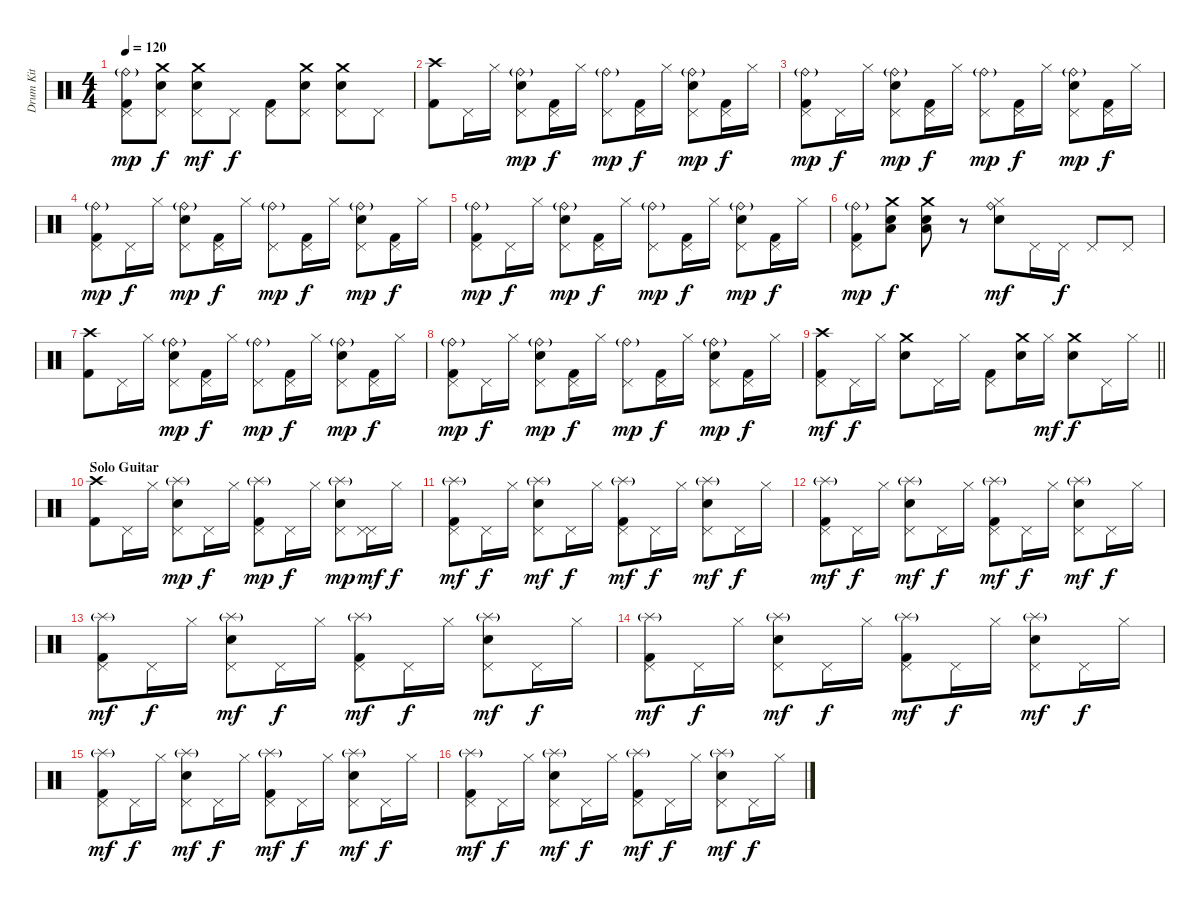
\track ("Drum Kit" "Drum Kit") {instrument percussion}
\staff {score}
\articulation defaults
\ts (4 4)
\tempo 120
\clef neutral
\ks c
("Kick (hit) 2" "Pedal Hi-Hat (hit)" "Ride (bell)"{g}).8{dy mp} ("Pedal Hi-Hat (hit)" "Electric Snare (hit)" "Crash medium (hit)").8{dy f} ("Electric Snare (hit)" "Pedal Hi-Hat (hit)" "Crash medium (hit)").8{dy mf} "Pedal Hi-Hat (hit)".8{dy f} ("Kick (hit) 2" "Pedal Hi-Hat (hit)").8 ("Crash medium (hit)" "Electric Snare (hit)" "Pedal Hi-Hat (hit)").8 ("Crash medium (hit)" "Electric Snare (hit)" "Pedal Hi-Hat (hit)").8 "Pedal Hi-Hat (hit)".8 |
("Crash high (hit)" "Kick (hit) 2").8 "Pedal Hi-Hat (hit)".16 "Hi-Hat (closed)".16 ("Electric Snare (hit)" "Pedal Hi-Hat (hit)" "Ride (bell)"{g}).8{dy mp} ("Kick (hit) 2" "Pedal Hi-Hat (hit)").16{dy f} "Hi-Hat (closed)".16 ("Pedal Hi-Hat (hit)" "Ride (bell)"{g}).8{dy mp} ("Kick (hit) 2" "Pedal Hi-Hat (hit)").16{dy f} "Hi-Hat (closed)".16 ("Electric Snare (hit)" "Pedal Hi-Hat (hit)" "Ride (bell)"{g}).8{dy mp} ("Kick (hit) 2" "Pedal Hi-Hat (hit)").16{dy f} "Hi-Hat (closed)".16 |
("Kick (hit) 2" "Pedal Hi-Hat (hit)" "Ride (bell)"{g}).8{dy mp} "Pedal Hi-Hat (hit)".16{dy f} "Hi-Hat (closed)".16 ("Electric Snare (hit)" "Pedal Hi-Hat (hit)" "Ride (bell)"{g}).8{dy mp} ("Kick (hit) 2" "Pedal Hi-Hat (hit)").16{dy f} "Hi-Hat (closed)".16 ("Pedal Hi-Hat (hit)" "Ride (bell)"{g}).8{dy mp} ("Kick (hit) 2" "Pedal Hi-Hat (hit)").16{dy f} "Hi-Hat (closed)".16 ("Electric Snare (hit)" "Pedal Hi-Hat (hit)" "Ride (bell)"{g}).8{dy mp} ("Kick (hit) 2" "Pedal Hi-Hat (hit)").16{dy f} "Hi-Hat (closed)".16 |
("Kick (hit) 2" "Pedal Hi-Hat (hit)" "Ride (bell)"{g}).8{dy mp} "Pedal Hi-Hat (hit)".16{dy f} "Hi-Hat (closed)".16 ("Electric Snare (hit)" "Pedal Hi-Hat (hit)" "Ride (bell)"{g}).8{dy mp} ("Kick (hit) 2" "Pedal Hi-Hat (hit)").16{dy f} "Hi-Hat (closed)".16 ("Pedal Hi-Hat (hit)" "Ride (bell)"{g}).8{dy mp} ("Kick (hit) 2" "Pedal Hi-Hat (hit)").16{dy f} "Hi-Hat (closed)".16 ("Electric Snare (hit)" "Pedal Hi-Hat (hit)" "Ride (bell)"{g}).8{dy mp} ("Kick (hit) 2" "Pedal Hi-Hat (hit)").16{dy f} "Hi-Hat (closed)".16 |
("Kick (hit) 2" "Pedal Hi-Hat (hit)" "Ride (bell)"{g}).8{dy mp} "Pedal Hi-Hat (hit)".16{dy f} "Hi-Hat (closed)".16 ("Electric Snare (hit)" "Pedal Hi-Hat (hit)" "Ride (bell)"{g}).8{dy mp} ("Kick (hit) 2" "Pedal Hi-Hat (hit)").16{dy f} "Hi-Hat (closed)".16 ("Pedal Hi-Hat (hit)" "Ride (bell)"{g}).8{dy mp} ("Kick (hit) 2" "Pedal Hi-Hat (hit)").16{dy f} "Hi-Hat (closed)".16 ("Electric Snare (hit)" "Pedal Hi-Hat (hit)" "Ride (bell)"{g}).8{dy mp} ("Kick (hit) 2" "Pedal Hi-Hat (hit)").16{dy f} "Hi-Hat (closed)".16 |
("Kick (hit) 2" "Pedal Hi-Hat (hit)" "Ride (bell)"{g}).8{dy mp} ("Low Tom (hit)" "Electric Snare (hit)" "Crash medium (hit)").8{dy f} ("Low Tom (hit)" "Electric Snare (hit)" "Crash medium (hit)").8 r.8 ("Electric Snare (hit)" "Ride (bell)" "Hi-Hat (closed)").8{dy mf} "Pedal Hi-Hat (hit)".16 "Pedal Hi-Hat (hit)".16{dy f} "Pedal Hi-Hat (hit)".8 "Pedal Hi-Hat (hit)".8 |
("Crash high (hit)" "Kick (hit) 2").8 "Pedal Hi-Hat (hit)".16 "Hi-Hat (closed)".16 ("Electric Snare (hit)" "Pedal Hi-Hat (hit)" "Ride (bell)"{g}).8{dy mp} ("Kick (hit) 2" "Pedal Hi-Hat (hit)").16{dy f} "Hi-Hat (closed)".16 ("Pedal Hi-Hat (hit)" "Ride (bell)"{g}).8{dy mp} ("Kick (hit) 2" "Pedal Hi-Hat (hit)").16{dy f} "Hi-Hat (closed)".16 ("Electric Snare (hit)" "Pedal Hi-Hat (hit)" "Ride (bell)"{g}).8{dy mp} ("Kick (hit) 2" "Pedal Hi-Hat (hit)").16{dy f} "Hi-Hat (closed)".16 |
("Kick (hit) 2" "Pedal Hi-Hat (hit)" "Ride (bell)"{g}).8{dy mp} "Pedal Hi-Hat (hit)".16{dy f} "Hi-Hat (closed)".16 ("Electric Snare (hit)" "Pedal Hi-Hat (hit)" "Ride (bell)"{g}).8{dy mp} ("Kick (hit) 2" "Pedal Hi-Hat (hit)").16{dy f} "Hi-Hat (closed)".16 ("Pedal Hi-Hat (hit)" "Ride (bell)"{g}).8{dy mp} ("Kick (hit) 2" "Pedal Hi-Hat (hit)").16{dy f} "Hi-Hat (closed)".16 ("Electric Snare (hit)" "Pedal Hi-Hat (hit)" "Ride (bell)"{g}).8{dy mp} ("Kick (hit) 2" "Pedal Hi-Hat (hit)").16{dy f} "Hi-Hat (closed)".16 |
\barLineRight lightlight
("Kick (hit) 2" "Pedal Hi-Hat (hit)" "Crash high (hit)").8{dy mf} "Pedal Hi-Hat (hit)".16{dy f} "Hi-Hat (closed)".16 ("Electric Snare (hit)" "Crash medium (hit)").8 "Pedal Hi-Hat (hit)".16 "Hi-Hat (closed)".16 ("Kick (hit) 2" "Pedal Hi-Hat (hit)").8 ("Electric Snare (hit)" "Crash medium (hit)").16 "Hi-Hat (closed)".16{dy mf} ("Electric Snare (hit)" "Crash medium (hit)").8{dy f} "Pedal Hi-Hat (hit)".16 "Hi-Hat (closed)".16 |
\section ("" "Solo Guitar")
("Crash high (hit)" "Kick (hit) 2").8 "Pedal Hi-Hat (hit)".16 "Hi-Hat (closed)".16 ("Electric Snare (hit)" "Pedal Hi-Hat (hit)" "Splash (hit)"{g}).8{dy mp} "Pedal Hi-Hat (hit)".16{dy f} "Hi-Hat (closed)".16 ("Kick (hit) 2" "Pedal Hi-Hat (hit)" "Splash (hit)"{g}).8{dy mp} "Pedal Hi-Hat (hit)".16{dy f} "Hi-Hat (closed)".16 ("Electric Snare (hit)" "Pedal Hi-Hat (hit)" "Splash (hit)"{g}).8{dy mp} ("Pedal Hi-Hat (hit)" "Pedal Hi-Hat (hit)").16{dy mf} "Hi-Hat (closed)".16{dy f} |
("Kick (hit) 2" "Pedal Hi-Hat (hit)" "Splash (hit)"{g}).8{dy mf} "Pedal Hi-Hat (hit)".16{dy f} "Hi-Hat (closed)".16 ("Electric Snare (hit)" "Pedal Hi-Hat (hit)" "Splash (hit)"{g}).8{dy mf} "Pedal Hi-Hat (hit)".16{dy f} "Hi-Hat (closed)".16 ("Kick (hit) 2" "Pedal Hi-Hat (hit)" "Splash (hit)"{g}).8{dy mf} "Pedal Hi-Hat (hit)".16{dy f} "Hi-Hat (closed)".16 ("Electric Snare (hit)" "Pedal Hi-Hat (hit)" "Splash (hit)"{g}).8{dy mf} "Pedal Hi-Hat (hit)".16{dy f} "Hi-Hat (closed)".16 |
("Kick (hit) 2" "Pedal Hi-Hat (hit)" "Splash (hit)"{g}).8{dy mf} "Pedal Hi-Hat (hit)".16{dy f} "Hi-Hat (closed)".16 ("Electric Snare (hit)" "Pedal Hi-Hat (hit)" "Splash (hit)"{g}).8{dy mf} "Pedal Hi-Hat (hit)".16{dy f} "Hi-Hat (closed)".16 ("Kick (hit) 2" "Pedal Hi-Hat (hit)" "Splash (hit)"{g}).8{dy mf} "Pedal Hi-Hat (hit)".16{dy f} "Hi-Hat (closed)".16 ("Electric Snare (hit)" "Pedal Hi-Hat (hit)" "Splash (hit)"{g}).8{dy mf} "Pedal Hi-Hat (hit)".16{dy f} "Hi-Hat (closed)".16 |
("Kick (hit) 2" "Pedal Hi-Hat (hit)" "Splash (hit)"{g}).8{dy mf} "Pedal Hi-Hat (hit)".16{dy f} "Hi-Hat (closed)".16 ("Electric Snare (hit)" "Pedal Hi-Hat (hit)" "Splash (hit)"{g}).8{dy mf} "Pedal Hi-Hat (hit)".16{dy f} "Hi-Hat (closed)".16 ("Kick (hit) 2" "Pedal Hi-Hat (hit)" "Splash (hit)"{g}).8{dy mf} "Pedal Hi-Hat (hit)".16{dy f} "Hi-Hat (closed)".16 ("Electric Snare (hit)" "Pedal Hi-Hat (hit)" "Splash (hit)"{g}).8{dy mf} "Pedal Hi-Hat (hit)".16{dy f} "Hi-Hat (closed)".16 |
("Kick (hit) 2" "Pedal Hi-Hat (hit)" "Splash (hit)"{g}).8{dy mf} "Pedal Hi-Hat (hit)".16{dy f} "Hi-Hat (closed)".16 ("Electric Snare (hit)" "Pedal Hi-Hat (hit)" "Splash (hit)"{g}).8{dy mf} "Pedal Hi-Hat (hit)".16{dy f} "Hi-Hat (closed)".16 ("Kick (hit) 2" "Pedal Hi-Hat (hit)" "Splash (hit)"{g}).8{dy mf} "Pedal Hi-Hat (hit)".16{dy f} "Hi-Hat (closed)".16 ("Electric Snare (hit)" "Pedal Hi-Hat (hit)" "Splash (hit)"{g}).8{dy mf} "Pedal Hi-Hat (hit)".16{dy f} "Hi-Hat (closed)".16 |
("Kick (hit) 2" "Pedal Hi-Hat (hit)" "Splash (hit)"{g}).8{dy mf} "Pedal Hi-Hat (hit)".16{dy f} "Hi-Hat (closed)".16 ("Electric Snare (hit)" "Pedal Hi-Hat (hit)" "Splash (hit)"{g}).8{dy mf} "Pedal Hi-Hat (hit)".16{dy f} "Hi-Hat (closed)".16 ("Kick (hit) 2" "Pedal Hi-Hat (hit)" "Splash (hit)"{g}).8{dy mf} "Pedal Hi-Hat (hit)".16{dy f} "Hi-Hat (closed)".16 ("Electric Snare (hit)" "Pedal Hi-Hat (hit)" "Splash (hit)"{g}).8{dy mf} "Pedal Hi-Hat (hit)".16{dy f} "Hi-Hat (closed)".16 |
("Kick (hit) 2" "Pedal Hi-Hat (hit)" "Splash (hit)"{g}).8{dy mf} "Pedal Hi-Hat (hit)".16{dy f} "Hi-Hat (closed)".16 ("Electric Snare (hit)" "Pedal Hi-Hat (hit)" "Splash (hit)"{g}).8{dy mf} "Pedal Hi-Hat (hit)".16{dy f} "Hi-Hat (closed)".16 ("Kick (hit) 2" "Pedal Hi-Hat (hit)" "Splash (hit)"{g}).8{dy mf} "Pedal Hi-Hat (hit)".16{dy f} "Hi-Hat (closed)".16 ("Electric Snare (hit)" "Pedal Hi-Hat (hit)" "Splash (hit)"{g}).8{dy mf} "Pedal Hi-Hat (hit)".16{dy f} "Hi-Hat (closed)".16
